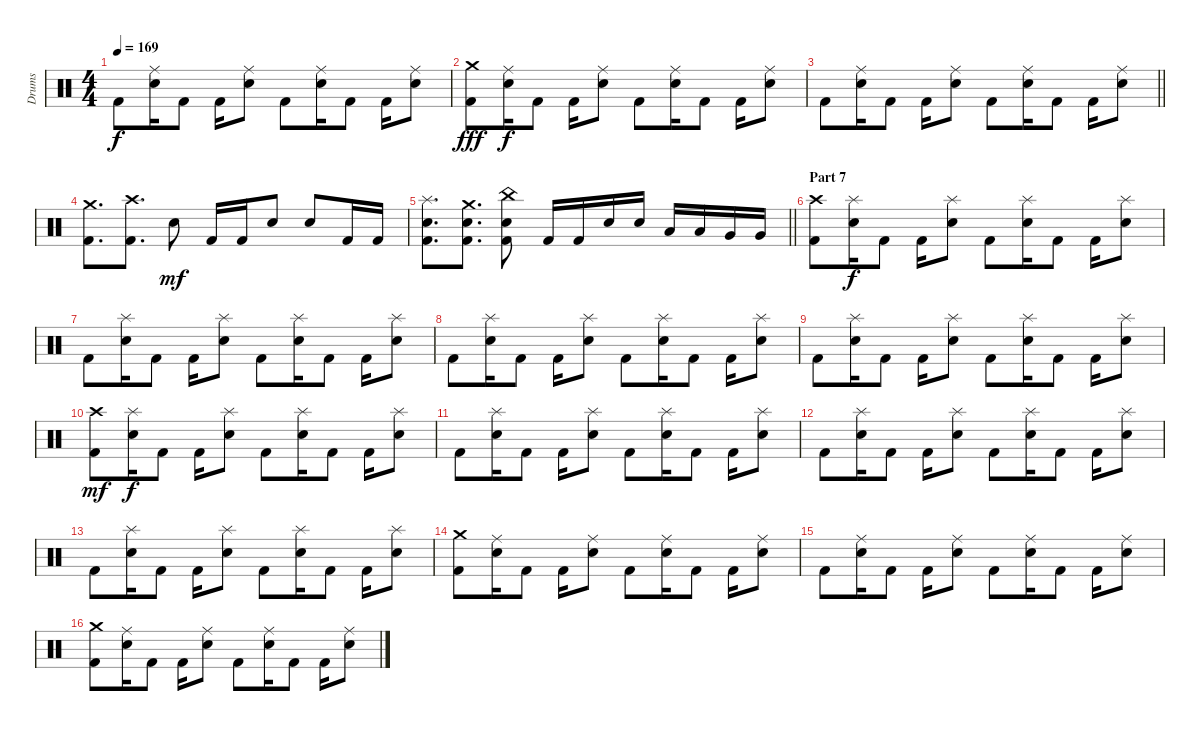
\track ("Drums" "Drums") {instrument percussion}
\staff {score}
\articulation defaults
\ts (4 4)
\tempo 169
\clef neutral
\ks c "Kick (hit) 2".8{dy f}
("Electric Snare (hit)" "Ride (middle)").16 "Kick (hit) 2".8 "Kick (hit) 2".16 ("Electric Snare (hit)" "Ride (middle)").8 "Kick (hit) 2".8 ("Electric Snare (hit)" "Ride (middle)").16 "Kick (hit) 2".8 "Kick (hit) 2".16 ("Electric Snare (hit)" "Ride (middle)").8 |
("Kick (hit) 2" "Crash medium (hit)").8{dy fff} ("Electric Snare (hit)" "Ride (middle)").16{dy f} "Kick (hit) 2".8 "Kick (hit) 2".16 ("Electric Snare (hit)" "Ride (middle)").8 "Kick (hit) 2".8 ("Electric Snare (hit)" "Ride (middle)").16 "Kick (hit) 2".8 "Kick (hit) 2".16 ("Electric Snare (hit)" "Ride (middle)").8 |
\barLineRight lightlight "Kick (hit) 2".8
("Electric Snare (hit)" "Ride (middle)").16 "Kick (hit) 2".8 "Kick (hit) 2".16 ("Electric Snare (hit)" "Ride (middle)").8 "Kick (hit) 2".8 ("Electric Snare (hit)" "Ride (middle)").16 "Kick (hit) 2".8 "Kick (hit) 2".16 ("Electric Snare (hit)" "Ride (middle)").8 |
("Kick (hit) 2" "Crash medium (hit)").8{d} ("Kick (hit) 2" "Crash high (hit)").8{d} "Electric Snare (hit)".8{dy mf} "Kick (hit) 2".16 "Kick (hit) 2".16 "Electric Snare (hit)".8 "Electric Snare (hit)".8 "Kick (hit) 2".16 "Kick (hit) 2".16 |
\barLineRight lightlight
("Kick (hit) 2" "Electric Snare (hit)" "Splash (hit)").8{d} ("Kick (hit) 2" "Electric Snare (hit)" "Crash medium (hit)").8{d} ("Kick (hit) 2" "Electric Snare (hit)" "China (hit)").8 "Kick (hit) 2".16 "Kick (hit) 2".16 "Electric Snare (hit)".16 "Electric Snare (hit)".16 "Low Tom (hit)".16 "Low Tom (hit)".16 "Very Low Tom (hit)".16 "Very Low Tom (hit)".16 |
\section ("" "Part 7")
("Kick (hit) 2" "Crash high (hit)").8 ("Electric Snare (hit)" "Splash (hit)").16{dy f} "Kick (hit) 2".8 "Kick (hit) 2".16 ("Electric Snare (hit)" "Splash (hit)").8 "Kick (hit) 2".8 ("Electric Snare (hit)" "Splash (hit)").16 "Kick (hit) 2".8 "Kick (hit) 2".16 ("Electric Snare (hit)" "Splash (hit)").8 |
"Kick (hit) 2".8 ("Electric Snare (hit)" "Splash (hit)").16 "Kick (hit) 2".8 "Kick (hit) 2".16 ("Electric Snare (hit)" "Splash (hit)").8 "Kick (hit) 2".8 ("Electric Snare (hit)" "Splash (hit)").16 "Kick (hit) 2".8 "Kick (hit) 2".16 ("Electric Snare (hit)" "Splash (hit)").8 |
"Kick (hit) 2".8 ("Electric Snare (hit)" "Splash (hit)").16 "Kick (hit) 2".8 "Kick (hit) 2".16 ("Electric Snare (hit)" "Splash (hit)").8 "Kick (hit) 2".8 ("Electric Snare (hit)" "Splash (hit)").16 "Kick (hit) 2".8 "Kick (hit) 2".16 ("Electric Snare (hit)" "Splash (hit)").8 |
"Kick (hit) 2".8 ("Electric Snare (hit)" "Splash (hit)").16 "Kick (hit) 2".8 "Kick (hit) 2".16 ("Electric Snare (hit)" "Splash (hit)").8 "Kick (hit) 2".8 ("Electric Snare (hit)" "Splash (hit)").16 "Kick (hit) 2".8 "Kick (hit) 2".16 ("Electric Snare (hit)" "Splash (hit)").8 |
("Kick (hit) 2" "Crash high (hit)").8{dy mf} ("Electric Snare (hit)" "Splash (hit)").16{dy f} "Kick (hit) 2".8 "Kick (hit) 2".16 ("Electric Snare (hit)" "Splash (hit)").8 "Kick (hit) 2".8 ("Electric Snare (hit)" "Splash (hit)").16 "Kick (hit) 2".8 "Kick (hit) 2".16 ("Electric Snare (hit)" "Splash (hit)").8 |
"Kick (hit) 2".8 ("Electric Snare (hit)" "Splash (hit)").16 "Kick (hit) 2".8 "Kick (hit) 2".16 ("Electric Snare (hit)" "Splash (hit)").8 "Kick (hit) 2".8 ("Electric Snare (hit)" "Splash (hit)").16 "Kick (hit) 2".8 "Kick (hit) 2".16 ("Electric Snare (hit)" "Splash (hit)").8 |
"Kick (hit) 2".8 ("Electric Snare (hit)" "Splash (hit)").16 "Kick (hit) 2".8 "Kick (hit) 2".16 ("Electric Snare (hit)" "Splash (hit)").8 "Kick (hit) 2".8 ("Electric Snare (hit)" "Splash (hit)").16 "Kick (hit) 2".8 "Kick (hit) 2".16 ("Electric Snare (hit)" "Splash (hit)").8 |
"Kick (hit) 2".8 ("Electric Snare (hit)" "Splash (hit)").16 "Kick (hit) 2".8 "Kick (hit) 2".16 ("Electric Snare (hit)" "Splash (hit)").8 "Kick (hit) 2".8 ("Electric Snare (hit)" "Splash (hit)").16 "Kick (hit) 2".8 "Kick (hit) 2".16 ("Electric Snare (hit)" "Splash (hit)").8 |
("Kick (hit) 2" "Crash medium (hit)").8 ("Electric Snare (hit)" "Ride (middle)").16 "Kick (hit) 2".8 "Kick (hit) 2".16 ("Electric Snare (hit)" "Ride (middle)").8 "Kick (hit) 2".8 ("Electric Snare (hit)" "Ride (middle)").16 "Kick (hit) 2".8 "Kick (hit) 2".16 ("Electric Snare (hit)" "Ride (middle)").8 |
"Kick (hit) 2".8 ("Electric Snare (hit)" "Ride (middle)").16 "Kick (hit) 2".8 "Kick (hit) 2".16 ("Electric Snare (hit)" "Ride (middle)").8 "Kick (hit) 2".8 ("Electric Snare (hit)" "Ride (middle)").16 "Kick (hit) 2".8 "Kick (hit) 2".16 ("Electric Snare (hit)" "Ride (middle)").8 |
("Kick (hit) 2" "Crash medium (hit)").8 ("Electric Snare (hit)" "Ride (middle)").16 "Kick (hit) 2".8 "Kick (hit) 2".16 ("Electric Snare (hit)" "Ride (middle)").8 "Kick (hit) 2".8 ("Electric Snare (hit)" "Ride (middle)").16 "Kick (hit) 2".8 "Kick (hit) 2".16 ("Electric Snare (hit)" "Ride (middle)").8
